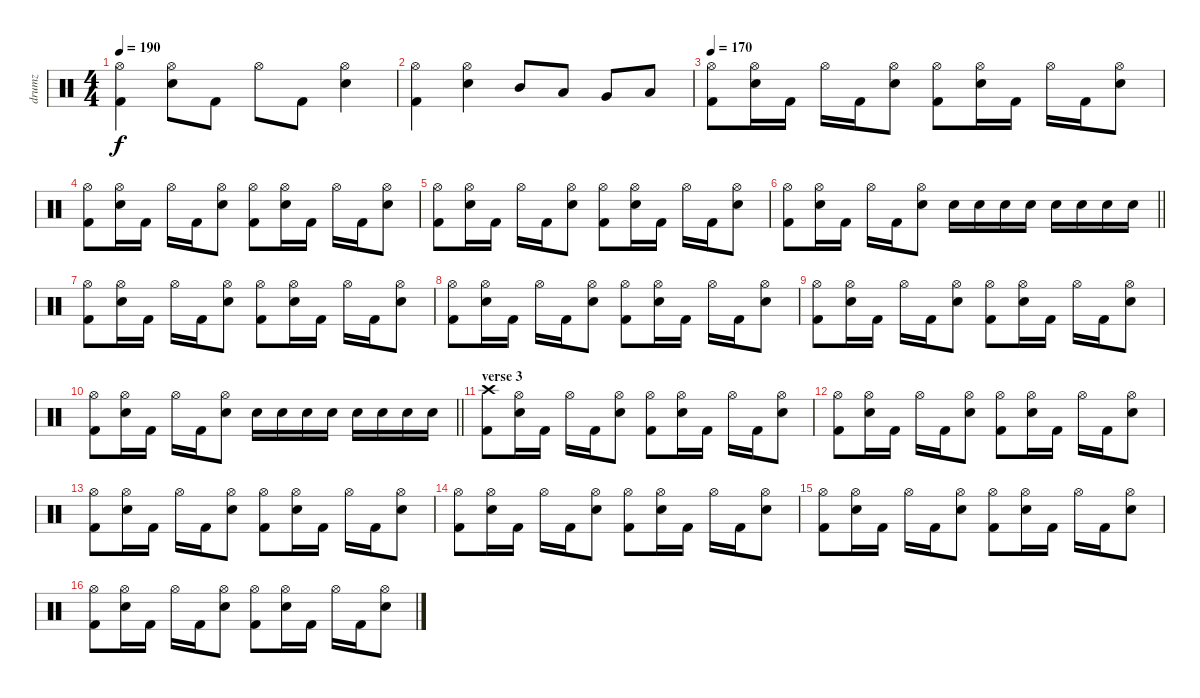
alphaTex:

\track ("drumz" "drumz") {instrument percussion}
\staff {score}
\articulation defaults
\ts (4 4)
\tempo 190
\clef neutral
\ks c
("Hi-Hat (open)" "Kick (hit) 2").4{dy f} ("Hi-Hat (open)" "Electric Snare (hit)").8 "Kick (hit) 2".8 "Hi-Hat (open)".8 "Kick (hit) 2".8 ("Hi-Hat (open)" "Electric Snare (hit)").4 |
("Hi-Hat (open)" "Kick (hit) 2").4 ("Hi-Hat (open)" "Electric Snare (hit)").4 "Mid Tom (hit)".8 "Low Tom (hit)".8 "Very Low Tom (hit)".8 "Low Floor Tom (hit)".8 |
\tempo 170
("Hi-Hat (open)" "Kick (hit) 2").8 ("Hi-Hat (open)" "Electric Snare (hit)").16 "Kick (hit) 2".16 "Hi-Hat (open)".16 "Kick (hit) 2".16 ("Hi-Hat (open)" "Electric Snare (hit)").8 ("Hi-Hat (open)" "Kick (hit) 2").8 ("Hi-Hat (open)" "Electric Snare (hit)").16 "Kick (hit) 2".16 "Hi-Hat (open)".16 "Kick (hit) 2".16 ("Hi-Hat (open)" "Electric Snare (hit)").8 |
("Hi-Hat (open)" "Kick (hit) 2").8 ("Hi-Hat (open)" "Electric Snare (hit)").16 "Kick (hit) 2".16 "Hi-Hat (open)".16 "Kick (hit) 2".16 ("Hi-Hat (open)" "Electric Snare (hit)").8 ("Hi-Hat (open)" "Kick (hit) 2").8 ("Hi-Hat (open)" "Electric Snare (hit)").16 "Kick (hit) 2".16 "Hi-Hat (open)".16 "Kick (hit) 2".16 ("Hi-Hat (open)" "Electric Snare (hit)").8 |
("Hi-Hat (open)" "Kick (hit) 2").8 ("Hi-Hat (open)" "Electric Snare (hit)").16 "Kick (hit) 2".16 "Hi-Hat (open)".16 "Kick (hit) 2".16 ("Hi-Hat (open)" "Electric Snare (hit)").8 ("Hi-Hat (open)" "Kick (hit) 2").8 ("Hi-Hat (open)" "Electric Snare (hit)").16 "Kick (hit) 2".16 "Hi-Hat (open)".16 "Kick (hit) 2".16 ("Hi-Hat (open)" "Electric Snare (hit)").8 |
\barLineRight lightlight
("Hi-Hat (open)" "Kick (hit) 2").8 ("Hi-Hat (open)" "Electric Snare (hit)").16 "Kick (hit) 2".16 "Hi-Hat (open)".16 "Kick (hit) 2".16 ("Hi-Hat (open)" "Electric Snare (hit)").8 "Electric Snare (hit)".16 "Electric Snare (hit)".16 "Electric Snare (hit)".16 "Electric Snare (hit)".16 "Electric Snare (hit)".16 "Electric Snare (hit)".16 "Electric Snare (hit)".16 "Electric Snare (hit)".16 |
("Hi-Hat (open)" "Kick (hit) 2").8 ("Hi-Hat (open)" "Electric Snare (hit)").16 "Kick (hit) 2".16 "Hi-Hat (open)".16 "Kick (hit) 2".16 ("Hi-Hat (open)" "Electric Snare (hit)").8 ("Hi-Hat (open)" "Kick (hit) 2").8 ("Hi-Hat (open)" "Electric Snare (hit)").16 "Kick (hit) 2".16 "Hi-Hat (open)".16 "Kick (hit) 2".16 ("Hi-Hat (open)" "Electric Snare (hit)").8 |
("Hi-Hat (open)" "Kick (hit) 2").8 ("Hi-Hat (open)" "Electric Snare (hit)").16 "Kick (hit) 2".16 "Hi-Hat (open)".16 "Kick (hit) 2".16 ("Hi-Hat (open)" "Electric Snare (hit)").8 ("Hi-Hat (open)" "Kick (hit) 2").8 ("Hi-Hat (open)" "Electric Snare (hit)").16 "Kick (hit) 2".16 "Hi-Hat (open)".16 "Kick (hit) 2".16 ("Hi-Hat (open)" "Electric Snare (hit)").8 |
("Hi-Hat (open)" "Kick (hit) 2").8 ("Hi-Hat (open)" "Electric Snare (hit)").16 "Kick (hit) 2".16 "Hi-Hat (open)".16 "Kick (hit) 2".16 ("Hi-Hat (open)" "Electric Snare (hit)").8 ("Hi-Hat (open)" "Kick (hit) 2").8 ("Hi-Hat (open)" "Electric Snare (hit)").16 "Kick (hit) 2".16 "Hi-Hat (open)".16 "Kick (hit) 2".16 ("Hi-Hat (open)" "Electric Snare (hit)").8 |
\barLineRight lightlight
("Hi-Hat (open)" "Kick (hit) 2").8 ("Hi-Hat (open)" "Electric Snare (hit)").16 "Kick (hit) 2".16 "Hi-Hat (open)".16 "Kick (hit) 2".16 ("Hi-Hat (open)" "Electric Snare (hit)").8 "Electric Snare (hit)".16 "Electric Snare (hit)".16 "Electric Snare (hit)".16 "Electric Snare (hit)".16 "Electric Snare (hit)".16 "Electric Snare (hit)".16 "Electric Snare (hit)".16 "Electric Snare (hit)".16 |
\section ("" "verse 3")
("Crash high (hit)" "Kick (hit) 2").8 ("Hi-Hat (open)" "Electric Snare (hit)").16 "Kick (hit) 2".16 "Hi-Hat (open)".16 "Kick (hit) 2".16 ("Hi-Hat (open)" "Electric Snare (hit)").8 ("Hi-Hat (open)" "Kick (hit) 2").8 ("Hi-Hat (open)" "Electric Snare (hit)").16 "Kick (hit) 2".16 "Hi-Hat (open)".16 "Kick (hit) 2".16 ("Hi-Hat (open)" "Electric Snare (hit)").8 |
("Hi-Hat (open)" "Kick (hit) 2").8 ("Hi-Hat (open)" "Electric Snare (hit)").16 "Kick (hit) 2".16 "Hi-Hat (open)".16 "Kick (hit) 2".16 ("Hi-Hat (open)" "Electric Snare (hit)").8 ("Hi-Hat (open)" "Kick (hit) 2").8 ("Hi-Hat (open)" "Electric Snare (hit)").16 "Kick (hit) 2".16 "Hi-Hat (open)".16 "Kick (hit) 2".16 ("Hi-Hat (open)" "Electric Snare (hit)").8 |
("Hi-Hat (open)" "Kick (hit) 2").8 ("Hi-Hat (open)" "Electric Snare (hit)").16 "Kick (hit) 2".16 "Hi-Hat (open)".16 "Kick (hit) 2".16 ("Hi-Hat (open)" "Electric Snare (hit)").8 ("Hi-Hat (open)" "Kick (hit) 2").8 ("Hi-Hat (open)" "Electric Snare (hit)").16 "Kick (hit) 2".16 "Hi-Hat (open)".16 "Kick (hit) 2".16 ("Hi-Hat (open)" "Electric Snare (hit)").8 |
("Hi-Hat (open)" "Kick (hit) 2").8 ("Hi-Hat (open)" "Electric Snare (hit)").16 "Kick (hit) 2".16 "Hi-Hat (open)".16 "Kick (hit) 2".16 ("Hi-Hat (open)" "Electric Snare (hit)").8 ("Hi-Hat (open)" "Kick (hit) 2").8 ("Hi-Hat (open)" "Electric Snare (hit)").16 "Kick (hit) 2".16 "Hi-Hat (open)".16 "Kick (hit) 2".16 ("Hi-Hat (open)" "Electric Snare (hit)").8 |
("Hi-Hat (open)" "Kick (hit) 2").8 ("Hi-Hat (open)" "Electric Snare (hit)").16 "Kick (hit) 2".16 "Hi-Hat (open)".16 "Kick (hit) 2".16 ("Hi-Hat (open)" "Electric Snare (hit)").8 ("Hi-Hat (open)" "Kick (hit) 2").8 ("Hi-Hat (open)" "Electric Snare (hit)").16 "Kick (hit) 2".16 "Hi-Hat (open)".16 "Kick (hit) 2".16 ("Hi-Hat (open)" "Electric Snare (hit)").8 |
("Hi-Hat (open)" "Kick (hit) 2").8 ("Hi-Hat (open)" "Electric Snare (hit)").16 "Kick (hit) 2".16 "Hi-Hat (open)".16 "Kick (hit) 2".16 ("Hi-Hat (open)" "Electric Snare (hit)").8 ("Hi-Hat (open)" "Kick (hit) 2").8 ("Hi-Hat (open)" "Electric Snare (hit)").16 "Kick (hit) 2".16 "Hi-Hat (open)".16 "Kick (hit) 2".16 ("Hi-Hat (open)" "Electric Snare (hit)").8
